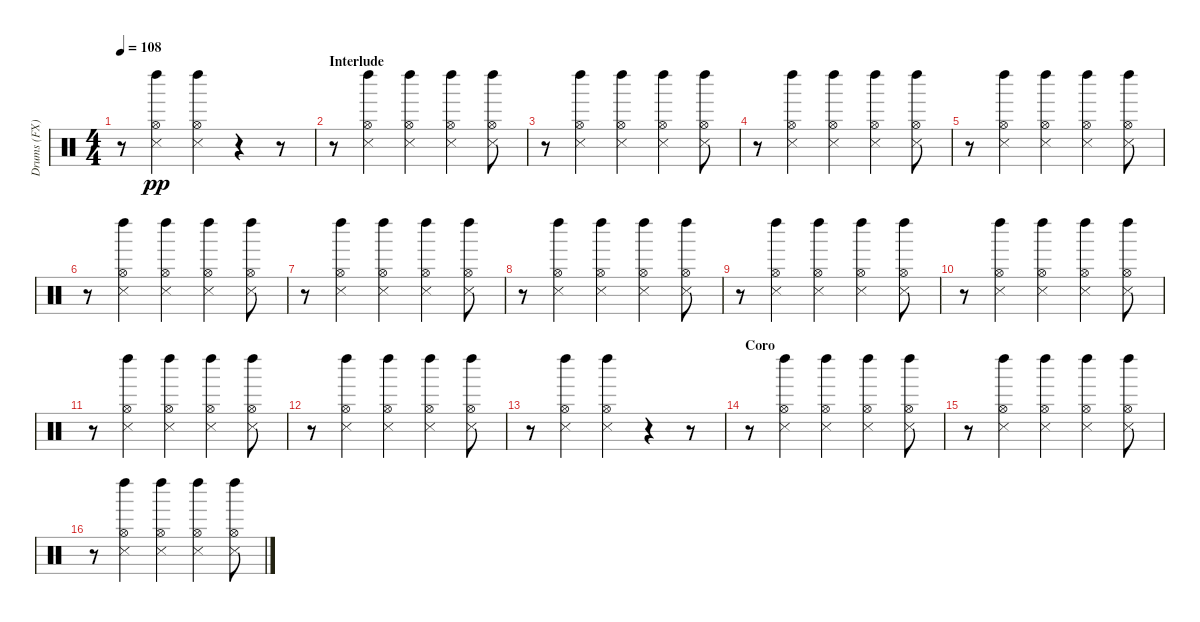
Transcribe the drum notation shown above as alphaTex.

\track ("Drums (FX)" "Drums (FX)") {instrument percussion}
\staff {score}
\articulation defaults
\ts (4 4)
\tempo 108
\clef neutral
\ks c
r.8{dy pp} ("Hi-Hat (open)" "Snare (side stick) 3" "Left Maraca (hit)").4 ("Hi-Hat (open)" "Snare (side stick) 3" "Left Maraca (hit)").4 r.4 r.8 |
\section ("" "Interlude")
r.8 ("Hi-Hat (open)" "Snare (side stick) 3" "Left Maraca (hit)").4 ("Hi-Hat (open)" "Snare (side stick) 3" "Left Maraca (hit)").4 ("Hi-Hat (open)" "Snare (side stick) 3" "Left Maraca (hit)").4 ("Hi-Hat (open)" "Snare (side stick) 3" "Left Maraca (hit)").8 |
r.8 ("Hi-Hat (open)" "Snare (side stick) 3" "Left Maraca (hit)").4 ("Hi-Hat (open)" "Snare (side stick) 3" "Left Maraca (hit)").4 ("Hi-Hat (open)" "Snare (side stick) 3" "Left Maraca (hit)").4 ("Hi-Hat (open)" "Snare (side stick) 3" "Left Maraca (hit)").8 |
r.8 ("Hi-Hat (open)" "Snare (side stick) 3" "Left Maraca (hit)").4 ("Hi-Hat (open)" "Snare (side stick) 3" "Left Maraca (hit)").4 ("Hi-Hat (open)" "Snare (side stick) 3" "Left Maraca (hit)").4 ("Hi-Hat (open)" "Snare (side stick) 3" "Left Maraca (hit)").8 |
r.8 ("Hi-Hat (open)" "Snare (side stick) 3" "Left Maraca (hit)").4 ("Hi-Hat (open)" "Snare (side stick) 3" "Left Maraca (hit)").4 ("Hi-Hat (open)" "Snare (side stick) 3" "Left Maraca (hit)").4 ("Hi-Hat (open)" "Snare (side stick) 3" "Left Maraca (hit)").8 |
r.8 ("Hi-Hat (open)" "Snare (side stick) 3" "Left Maraca (hit)").4 ("Hi-Hat (open)" "Snare (side stick) 3" "Left Maraca (hit)").4 ("Hi-Hat (open)" "Snare (side stick) 3" "Left Maraca (hit)").4 ("Hi-Hat (open)" "Snare (side stick) 3" "Left Maraca (hit)").8 |
r.8 ("Hi-Hat (open)" "Snare (side stick) 3" "Left Maraca (hit)").4 ("Hi-Hat (open)" "Snare (side stick) 3" "Left Maraca (hit)").4 ("Hi-Hat (open)" "Snare (side stick) 3" "Left Maraca (hit)").4 ("Hi-Hat (open)" "Snare (side stick) 3" "Left Maraca (hit)").8 |
r.8 ("Hi-Hat (open)" "Snare (side stick) 3" "Left Maraca (hit)").4 ("Hi-Hat (open)" "Snare (side stick) 3" "Left Maraca (hit)").4 ("Hi-Hat (open)" "Snare (side stick) 3" "Left Maraca (hit)").4 ("Hi-Hat (open)" "Snare (side stick) 3" "Left Maraca (hit)").8 |
r.8 ("Hi-Hat (open)" "Snare (side stick) 3" "Left Maraca (hit)").4 ("Hi-Hat (open)" "Snare (side stick) 3" "Left Maraca (hit)").4 ("Hi-Hat (open)" "Snare (side stick) 3" "Left Maraca (hit)").4 ("Hi-Hat (open)" "Snare (side stick) 3" "Left Maraca (hit)").8 |
r.8 ("Hi-Hat (open)" "Snare (side stick) 3" "Left Maraca (hit)").4 ("Hi-Hat (open)" "Snare (side stick) 3" "Left Maraca (hit)").4 ("Hi-Hat (open)" "Snare (side stick) 3" "Left Maraca (hit)").4 ("Hi-Hat (open)" "Snare (side stick) 3" "Left Maraca (hit)").8 |
r.8 ("Hi-Hat (open)" "Snare (side stick) 3" "Left Maraca (hit)").4 ("Hi-Hat (open)" "Snare (side stick) 3" "Left Maraca (hit)").4 ("Hi-Hat (open)" "Snare (side stick) 3" "Left Maraca (hit)").4 ("Hi-Hat (open)" "Snare (side stick) 3" "Left Maraca (hit)").8 |
r.8 ("Hi-Hat (open)" "Snare (side stick) 3" "Left Maraca (hit)").4 ("Hi-Hat (open)" "Snare (side stick) 3" "Left Maraca (hit)").4 ("Hi-Hat (open)" "Snare (side stick) 3" "Left Maraca (hit)").4 ("Hi-Hat (open)" "Snare (side stick) 3" "Left Maraca (hit)").8 |
r.8 ("Hi-Hat (open)" "Snare (side stick) 3" "Left Maraca (hit)").4 ("Hi-Hat (open)" "Snare (side stick) 3" "Left Maraca (hit)").4 r.4 r.8 |
\section ("" "Coro")
r.8 ("Hi-Hat (open)" "Snare (side stick) 3" "Left Maraca (hit)").4 ("Hi-Hat (open)" "Snare (side stick) 3" "Left Maraca (hit)").4 ("Hi-Hat (open)" "Snare (side stick) 3" "Left Maraca (hit)").4 ("Hi-Hat (open)" "Snare (side stick) 3" "Left Maraca (hit)").8 |
r.8 ("Hi-Hat (open)" "Snare (side stick) 3" "Left Maraca (hit)").4 ("Hi-Hat (open)" "Snare (side stick) 3" "Left Maraca (hit)").4 ("Hi-Hat (open)" "Snare (side stick) 3" "Left Maraca (hit)").4 ("Hi-Hat (open)" "Snare (side stick) 3" "Left Maraca (hit)").8 |
r.8 ("Hi-Hat (open)" "Snare (side stick) 3" "Left Maraca (hit)").4 ("Hi-Hat (open)" "Snare (side stick) 3" "Left Maraca (hit)").4 ("Hi-Hat (open)" "Snare (side stick) 3" "Left Maraca (hit)").4 ("Hi-Hat (open)" "Snare (side stick) 3" "Left Maraca (hit)").8
